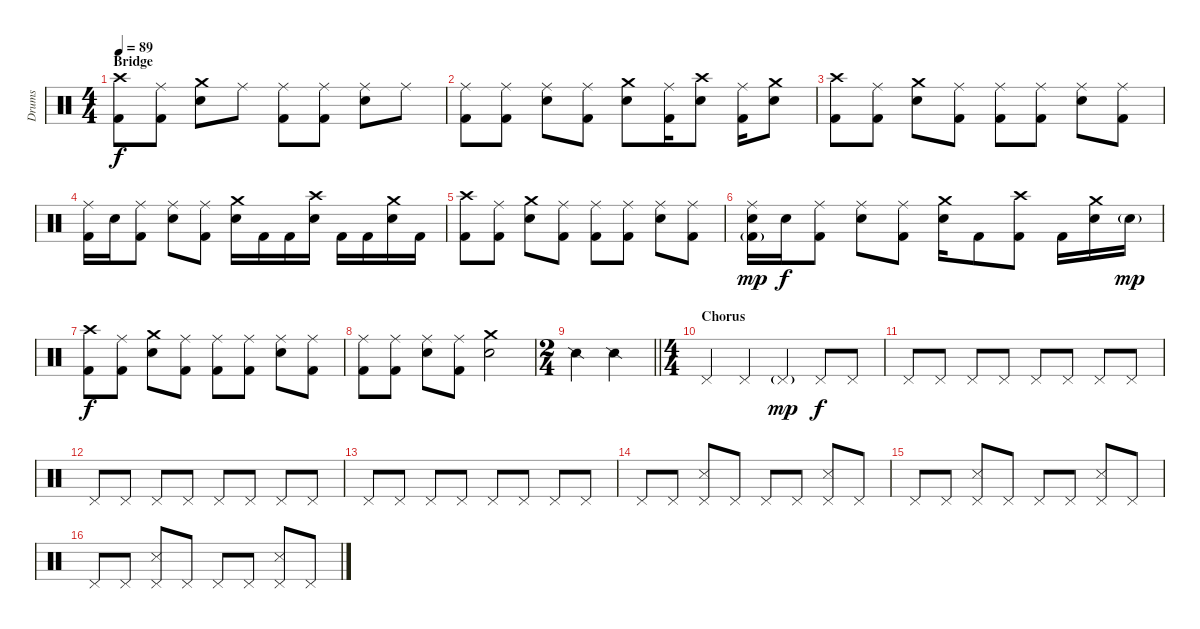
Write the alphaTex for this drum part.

\track ("Drums" "Drums") {instrument percussion}
\staff {score}
\articulation defaults
\ts (4 4)
\section ("" "Bridge")
\tempo 89
\clef neutral
\ks c
("Crash high (hit)" "Kick (hit) 2").8{dy f} ("Ride (middle)" "Kick (hit) 2").8 ("Crash medium (hit)" "Electric Snare (hit)").8 "Ride (middle)".8 ("Ride (middle)" "Kick (hit) 2").8 ("Ride (middle)" "Kick (hit) 2").8 ("Ride (middle)" "Electric Snare (hit)").8 "Ride (middle)".8 |
("Ride (middle)" "Kick (hit) 2").8 ("Ride (middle)" "Kick (hit) 2").8 ("Ride (middle)" "Electric Snare (hit)").8 ("Ride (middle)" "Kick (hit) 2").8 ("Crash medium (hit)" "Electric Snare (hit)").8 ("Ride (middle)" "Kick (hit) 2").16 ("Crash high (hit)" "Electric Snare (hit)").8 ("Ride (middle)" "Kick (hit) 2").16 ("Crash medium (hit)" "Electric Snare (hit)").8 |
("Crash high (hit)" "Kick (hit) 2").8 ("Ride (middle)" "Kick (hit) 2").8 ("Crash medium (hit)" "Electric Snare (hit)").8 ("Ride (middle)" "Kick (hit) 2").8 ("Ride (middle)" "Kick (hit) 2").8 ("Ride (middle)" "Kick (hit) 2").8 ("Ride (middle)" "Electric Snare (hit)").8 ("Ride (middle)" "Kick (hit) 2").8 |
("Ride (middle)" "Kick (hit) 2").16 "Electric Snare (hit)".16 ("Ride (middle)" "Kick (hit) 2").8 ("Ride (middle)" "Electric Snare (hit)").8 ("Ride (middle)" "Kick (hit) 2").8 ("Crash medium (hit)" "Electric Snare (hit)").16 "Kick (hit) 2".16 "Kick (hit) 2".16 ("Crash high (hit)" "Electric Snare (hit)").16 "Kick (hit) 2".16 "Kick (hit) 2".16 ("Crash medium (hit)" "Electric Snare (hit)").16 "Kick (hit) 2".16 |
("Crash high (hit)" "Kick (hit) 2").8 ("Ride (middle)" "Kick (hit) 2").8 ("Crash medium (hit)" "Electric Snare (hit)").8 ("Ride (middle)" "Kick (hit) 2").8 ("Ride (middle)" "Kick (hit) 2").8 ("Ride (middle)" "Kick (hit) 2").8 ("Ride (middle)" "Electric Snare (hit)").8 ("Ride (middle)" "Kick (hit) 2").8 |
("Ride (middle)" "Electric Snare (hit)" "Kick (hit) 2"{g}).16{dy mp} "Electric Snare (hit)".16{dy f} ("Ride (middle)" "Kick (hit) 2").8 ("Ride (middle)" "Electric Snare (hit)").8 ("Ride (middle)" "Kick (hit) 2").8 ("Crash medium (hit)" "Electric Snare (hit)").16 "Kick (hit) 2".8 ("Crash high (hit)" "Kick (hit) 2").8 "Kick (hit) 2".16 ("Crash medium (hit)" "Electric Snare (hit)").16 "Electric Snare (hit)"{g}.16{dy mp} |
("Crash high (hit)" "Kick (hit) 2").8{dy f} ("Ride (middle)" "Kick (hit) 2").8 ("Crash medium (hit)" "Electric Snare (hit)").8 ("Ride (middle)" "Kick (hit) 2").8 ("Ride (middle)" "Kick (hit) 2").8 ("Ride (middle)" "Kick (hit) 2").8 ("Ride (middle)" "Electric Snare (hit)").8 ("Ride (middle)" "Kick (hit) 2").8 |
("Ride (middle)" "Kick (hit) 2").8 ("Ride (middle)" "Kick (hit) 2").8 ("Ride (middle)" "Electric Snare (hit)").8 ("Ride (middle)" "Kick (hit) 2").8 ("Crash medium (hit)" "Electric Snare (hit)").2 |
\ts (2 4)
\barLineRight lightlight "Snare (side stick) 2".4 "Snare (side stick) 2".4
|
\ts (4 4)
\section ("" "Chorus")
"Pedal Hi-Hat (hit)".4 "Pedal Hi-Hat (hit)".4 "Pedal Hi-Hat (hit)"{g}.4{dy mp} "Pedal Hi-Hat (hit)".8{dy f} "Pedal Hi-Hat (hit)".8 |
"Pedal Hi-Hat (hit)".8 "Pedal Hi-Hat (hit)".8 "Pedal Hi-Hat (hit)".8 "Pedal Hi-Hat (hit)".8 "Pedal Hi-Hat (hit)".8 "Pedal Hi-Hat (hit)".8 "Pedal Hi-Hat (hit)".8 "Pedal Hi-Hat (hit)".8 |
"Pedal Hi-Hat (hit)".8 "Pedal Hi-Hat (hit)".8 "Pedal Hi-Hat (hit)".8 "Pedal Hi-Hat (hit)".8 "Pedal Hi-Hat (hit)".8 "Pedal Hi-Hat (hit)".8 "Pedal Hi-Hat (hit)".8 "Pedal Hi-Hat (hit)".8 |
"Pedal Hi-Hat (hit)".8 "Pedal Hi-Hat (hit)".8 "Pedal Hi-Hat (hit)".8 "Pedal Hi-Hat (hit)".8 "Pedal Hi-Hat (hit)".8 "Pedal Hi-Hat (hit)".8 "Pedal Hi-Hat (hit)".8 "Pedal Hi-Hat (hit)".8 |
"Pedal Hi-Hat (hit)".8 "Pedal Hi-Hat (hit)".8 ("Pedal Hi-Hat (hit)" "Snare (side stick) 3").8 "Pedal Hi-Hat (hit)".8 "Pedal Hi-Hat (hit)".8 "Pedal Hi-Hat (hit)".8 ("Pedal Hi-Hat (hit)" "Snare (side stick) 3").8 "Pedal Hi-Hat (hit)".8 |
"Pedal Hi-Hat (hit)".8 "Pedal Hi-Hat (hit)".8 ("Pedal Hi-Hat (hit)" "Snare (side stick) 3").8 "Pedal Hi-Hat (hit)".8 "Pedal Hi-Hat (hit)".8 "Pedal Hi-Hat (hit)".8 ("Pedal Hi-Hat (hit)" "Snare (side stick) 3").8 "Pedal Hi-Hat (hit)".8 |
"Pedal Hi-Hat (hit)".8 "Pedal Hi-Hat (hit)".8 ("Pedal Hi-Hat (hit)" "Snare (side stick) 3").8 "Pedal Hi-Hat (hit)".8 "Pedal Hi-Hat (hit)".8 "Pedal Hi-Hat (hit)".8 ("Pedal Hi-Hat (hit)" "Snare (side stick) 3").8 "Pedal Hi-Hat (hit)".8
